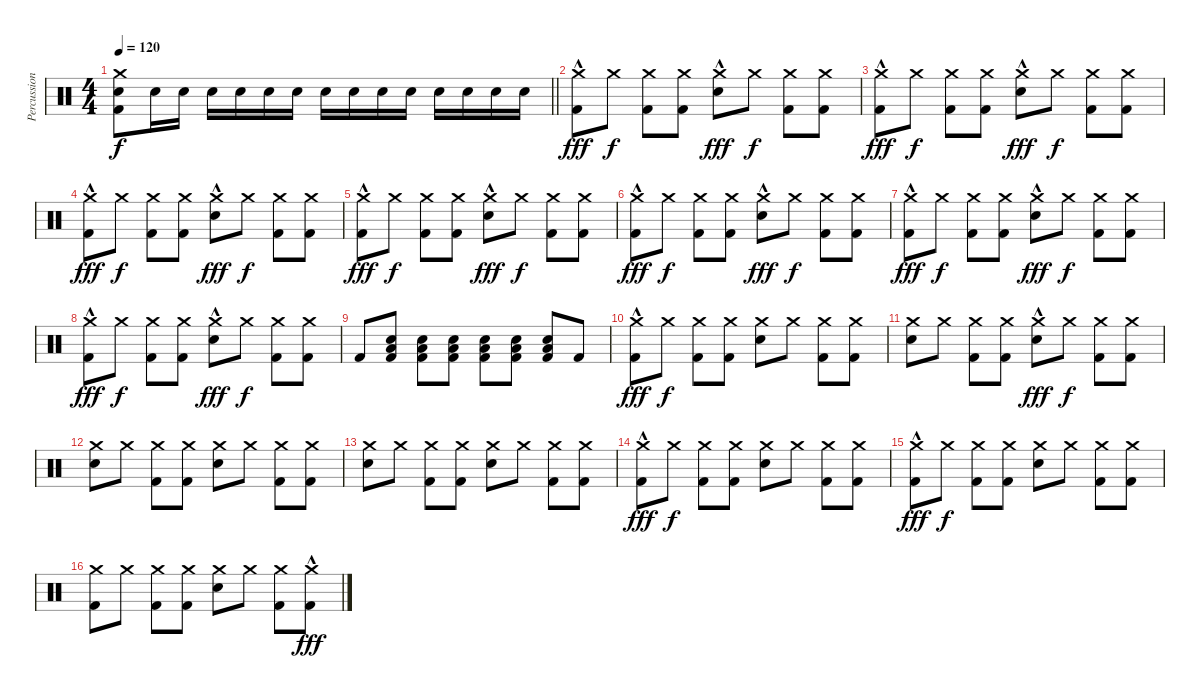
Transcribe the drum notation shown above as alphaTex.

\track ("Percussion" "Percussion") {instrument percussion}
\staff {score}
\articulation defaults
\ts (4 4)
\tempo 120
\clef neutral
\barLineRight lightlight
\ks c
("Crash medium (hit)" "Snare (hit) 2" "Kick (hit) 2").8{dy f} "Snare (hit) 2".16 "Snare (hit) 2".16 "Snare (hit) 2".16 "Snare (hit) 2".16 "Snare (hit) 2".16 "Snare (hit) 2".16 "Snare (hit) 2".16 "Snare (hit) 2".16 "Snare (hit) 2".16 "Snare (hit) 2".16 "Snare (hit) 2".16 "Snare (hit) 2".16 "Snare (hit) 2".16 "Snare (hit) 2".16 |
("Crash medium (hit)"{hac} "Kick (hit) 2").8{dy fff} "Crash medium (hit)".8{dy f} ("Crash medium (hit)" "Kick (hit) 2").8 ("Crash medium (hit)" "Kick (hit) 2").8 ("Crash medium (hit)"{hac} "Snare (hit) 2").8{dy fff} "Crash medium (hit)".8{dy f} ("Crash medium (hit)" "Kick (hit) 2").8 ("Crash medium (hit)" "Kick (hit) 2").8 |
("Crash medium (hit)"{hac} "Kick (hit) 2").8{dy fff} "Crash medium (hit)".8{dy f} ("Crash medium (hit)" "Kick (hit) 2").8 ("Crash medium (hit)" "Kick (hit) 2").8 ("Crash medium (hit)"{hac} "Snare (hit) 2").8{dy fff} "Crash medium (hit)".8{dy f} ("Crash medium (hit)" "Kick (hit) 2").8 ("Crash medium (hit)" "Kick (hit) 2").8 |
("Crash medium (hit)"{hac} "Kick (hit) 2").8{dy fff} "Crash medium (hit)".8{dy f} ("Crash medium (hit)" "Kick (hit) 2").8 ("Crash medium (hit)" "Kick (hit) 2").8 ("Crash medium (hit)"{hac} "Snare (hit) 2").8{dy fff} "Crash medium (hit)".8{dy f} ("Crash medium (hit)" "Kick (hit) 2").8 ("Crash medium (hit)" "Kick (hit) 2").8 |
("Crash medium (hit)"{hac} "Kick (hit) 2").8{dy fff} "Crash medium (hit)".8{dy f} ("Crash medium (hit)" "Kick (hit) 2").8 ("Crash medium (hit)" "Kick (hit) 2").8 ("Crash medium (hit)"{hac} "Snare (hit) 2").8{dy fff} "Crash medium (hit)".8{dy f} ("Crash medium (hit)" "Kick (hit) 2").8 ("Crash medium (hit)" "Kick (hit) 2").8 |
("Crash medium (hit)"{hac} "Kick (hit) 2").8{dy fff} "Crash medium (hit)".8{dy f} ("Crash medium (hit)" "Kick (hit) 2").8 ("Crash medium (hit)" "Kick (hit) 2").8 ("Crash medium (hit)"{hac} "Snare (hit) 2").8{dy fff} "Crash medium (hit)".8{dy f} ("Crash medium (hit)" "Kick (hit) 2").8 ("Crash medium (hit)" "Kick (hit) 2").8 |
("Crash medium (hit)"{hac} "Kick (hit) 2").8{dy fff} "Crash medium (hit)".8{dy f} ("Crash medium (hit)" "Kick (hit) 2").8 ("Crash medium (hit)" "Kick (hit) 2").8 ("Crash medium (hit)"{hac} "Snare (hit) 2").8{dy fff} "Crash medium (hit)".8{dy f} ("Crash medium (hit)" "Kick (hit) 2").8 ("Crash medium (hit)" "Kick (hit) 2").8 |
("Crash medium (hit)"{hac} "Kick (hit) 2").8{dy fff} "Crash medium (hit)".8{dy f} ("Crash medium (hit)" "Kick (hit) 2").8 ("Crash medium (hit)" "Kick (hit) 2").8 ("Crash medium (hit)"{hac} "Snare (hit) 2").8{dy fff} "Crash medium (hit)".8{dy f} ("Crash medium (hit)" "Kick (hit) 2").8 ("Crash medium (hit)" "Kick (hit) 2").8 |
"Kick (hit) 2".8 ("Snare (hit) 2" "Low Floor Tom (hit)" "Kick (hit) 2").8 ("Snare (hit) 2" "Low Floor Tom (hit)" "Kick (hit) 2").8 ("Snare (hit) 2" "Low Floor Tom (hit)" "Kick (hit) 2").8 ("Snare (hit) 2" "Low Floor Tom (hit)" "Kick (hit) 2").8 ("Snare (hit) 2" "Low Floor Tom (hit)" "Kick (hit) 2").8 ("Snare (hit) 2" "Low Floor Tom (hit)" "Kick (hit) 2").8 "Kick (hit) 2".8 |
("Crash medium (hit)"{hac} "Kick (hit) 2").8{dy fff} "Crash medium (hit)".8{dy f} ("Crash medium (hit)" "Kick (hit) 2").8 ("Crash medium (hit)" "Kick (hit) 2").8 ("Crash medium (hit)" "Snare (hit) 2").8 "Crash medium (hit)".8 ("Crash medium (hit)" "Kick (hit) 2").8 ("Crash medium (hit)" "Kick (hit) 2").8 |
("Crash medium (hit)" "Snare (hit) 2").8 "Crash medium (hit)".8 ("Crash medium (hit)" "Kick (hit) 2").8 ("Crash medium (hit)" "Kick (hit) 2").8 ("Crash medium (hit)"{hac} "Snare (hit) 2").8{dy fff} "Crash medium (hit)".8{dy f} ("Crash medium (hit)" "Kick (hit) 2").8 ("Crash medium (hit)" "Kick (hit) 2").8 |
("Crash medium (hit)" "Snare (hit) 2").8 "Crash medium (hit)".8 ("Crash medium (hit)" "Kick (hit) 2").8 ("Crash medium (hit)" "Kick (hit) 2").8 ("Crash medium (hit)" "Snare (hit) 2").8 "Crash medium (hit)".8 ("Crash medium (hit)" "Kick (hit) 2").8 ("Crash medium (hit)" "Kick (hit) 2").8 |
("Crash medium (hit)" "Snare (hit) 2").8 "Crash medium (hit)".8 ("Crash medium (hit)" "Kick (hit) 2").8 ("Crash medium (hit)" "Kick (hit) 2").8 ("Crash medium (hit)" "Snare (hit) 2").8 "Crash medium (hit)".8 ("Crash medium (hit)" "Kick (hit) 2").8 ("Crash medium (hit)" "Kick (hit) 2").8 |
("Crash medium (hit)"{hac} "Kick (hit) 2").8{dy fff} "Crash medium (hit)".8{dy f} ("Crash medium (hit)" "Kick (hit) 2").8 ("Crash medium (hit)" "Kick (hit) 2").8 ("Crash medium (hit)" "Snare (hit) 2").8 "Crash medium (hit)".8 ("Crash medium (hit)" "Kick (hit) 2").8 ("Crash medium (hit)" "Kick (hit) 2").8 |
("Crash medium (hit)"{hac} "Kick (hit) 2").8{dy fff} "Crash medium (hit)".8{dy f} ("Crash medium (hit)" "Kick (hit) 2").8 ("Crash medium (hit)" "Kick (hit) 2").8 ("Crash medium (hit)" "Snare (hit) 2").8 "Crash medium (hit)".8 ("Crash medium (hit)" "Kick (hit) 2").8 ("Crash medium (hit)" "Kick (hit) 2").8 |
("Crash medium (hit)" "Kick (hit) 2").8 "Crash medium (hit)".8 ("Crash medium (hit)" "Kick (hit) 2").8 ("Crash medium (hit)" "Kick (hit) 2").8 ("Crash medium (hit)" "Snare (hit) 2").8 "Crash medium (hit)".8 ("Crash medium (hit)" "Kick (hit) 2").8 ("Crash medium (hit)"{hac} "Kick (hit) 2").8{dy fff}
